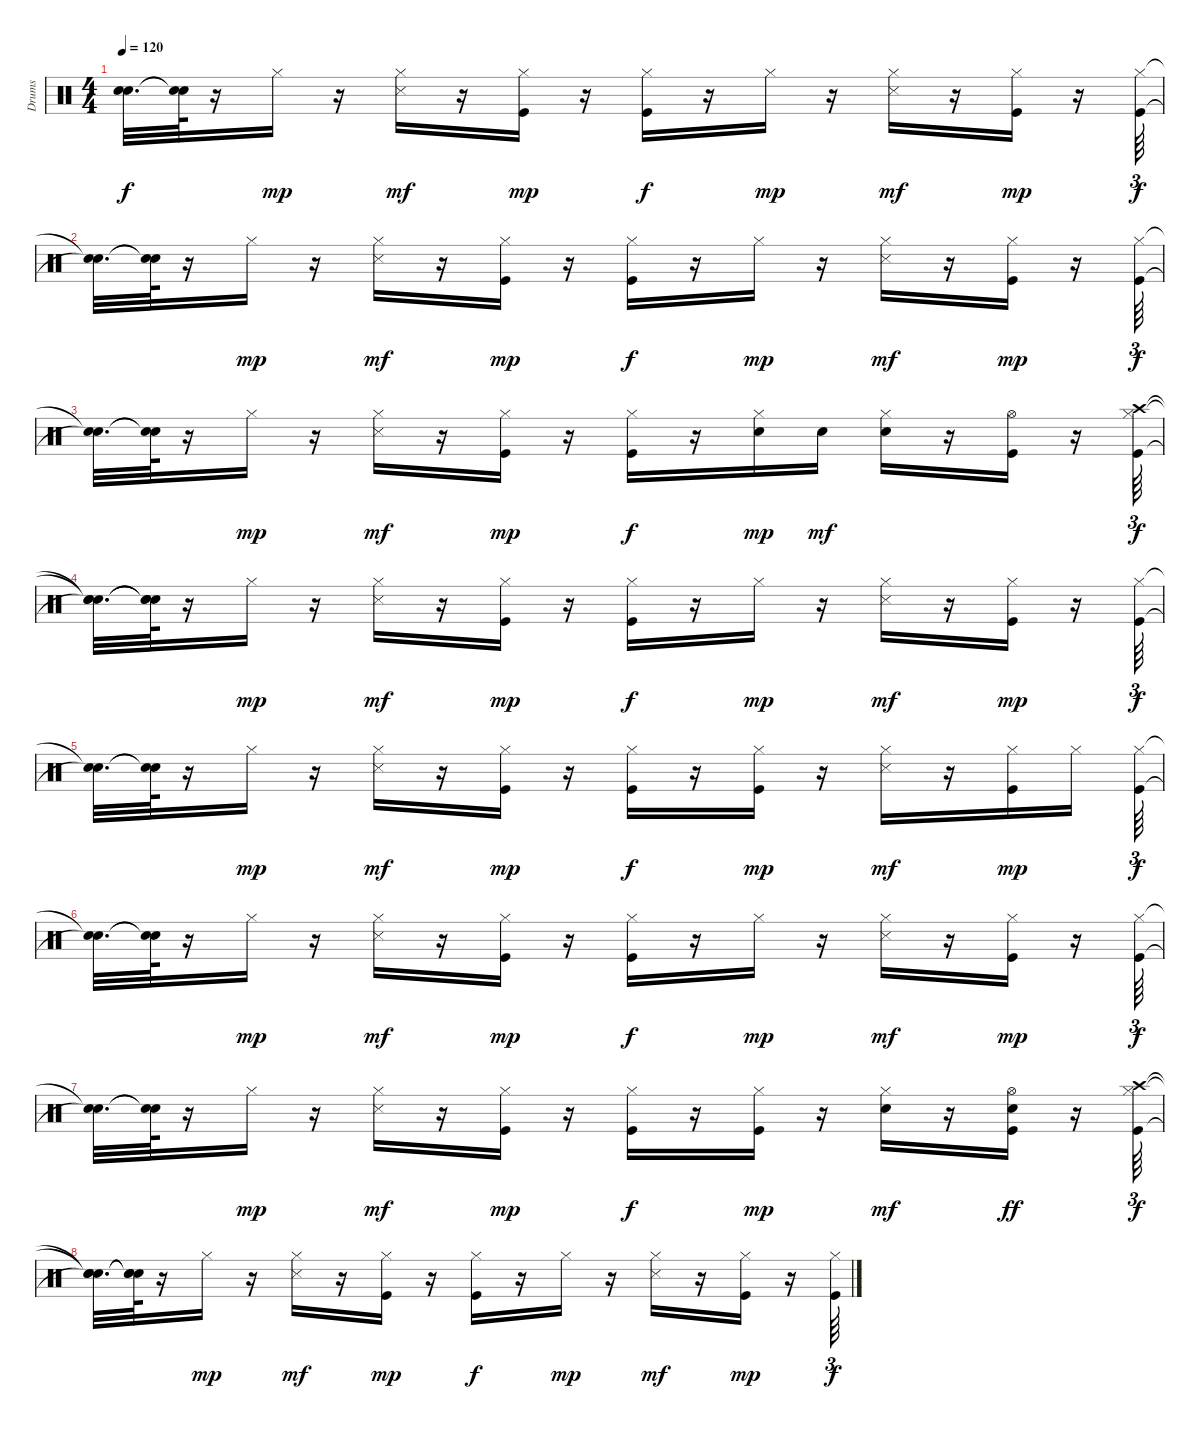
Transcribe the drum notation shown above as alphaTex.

\track ("Drums" "Drums") {instrument percussion}
\staff {score}
\articulation defaults
\ts (4 4)
\tempo 120
\clef neutral
\ks c
("Snare (hit)"{t} "Snare (hit)"{t}).32{d dy f} ("Snare (hit)"{t} "Snare (hit)"{t}).64 r.16 "Hi-Hat (closed)".16{dy mp} r.16 ("Hi-Hat (closed)" "Snare (side stick) 3").16{dy mf} r.16 ("Kick (hit)" "Hi-Hat (closed)").16{dy mp} r.16 ("Kick (hit)" "Hi-Hat (closed)").16{dy f} r.16 "Hi-Hat (closed)".16{dy mp} r.16 ("Hi-Hat (closed)" "Snare (side stick) 3").16{dy mf} r.16 ("Kick (hit)" "Hi-Hat (closed)").16{dy mp} r.16 ("Kick (hit)" "Hi-Hat (closed)").64{tu (3 2) dy f} |
("Snare (hit)"{t} "Snare (hit)"{t}).32{d} ("Snare (hit)"{t} "Snare (hit)"{t}).64 r.16 "Hi-Hat (closed)".16{dy mp} r.16 ("Hi-Hat (closed)" "Snare (side stick) 3").16{dy mf} r.16 ("Kick (hit)" "Hi-Hat (closed)").16{dy mp} r.16 ("Kick (hit)" "Hi-Hat (closed)").16{dy f} r.16 "Hi-Hat (closed)".16{dy mp} r.16 ("Hi-Hat (closed)" "Snare (side stick) 3").16{dy mf} r.16 ("Kick (hit)" "Hi-Hat (closed)").16{dy mp} r.16 ("Kick (hit)" "Hi-Hat (closed)").64{tu (3 2) dy f} |
("Snare (hit)"{t} "Snare (hit)"{t}).32{d} ("Snare (hit)"{t} "Snare (hit)"{t}).64 r.16 "Hi-Hat (closed)".16{dy mp} r.16 ("Hi-Hat (closed)" "Snare (side stick) 3").16{dy mf} r.16 ("Kick (hit)" "Hi-Hat (closed)").16{dy mp} r.16 ("Kick (hit)" "Hi-Hat (closed)").16{dy f} r.16 ("Snare (hit) 2" "Hi-Hat (closed)").16{dy mp} "Snare (hit) 2".16{dy mf} ("Snare (hit) 2" "Hi-Hat (closed)").16 r.16 ("Kick (hit)" "Hi-Hat (open)").16 r.16 ("Kick (hit)" "Hi-Hat (closed)" "Crash high (hit)").64{tu (3 2) dy f} |
("Snare (hit)"{t} "Snare (hit)"{t} "Snare (hit)"{t}).32{d} ("Snare (hit)"{t} "Snare (hit)"{t} "Snare (hit)"{t}).64 r.16 "Hi-Hat (closed)".16{dy mp} r.16 ("Hi-Hat (closed)" "Snare (side stick) 3").16{dy mf} r.16 ("Kick (hit)" "Hi-Hat (closed)").16{dy mp} r.16 ("Kick (hit)" "Hi-Hat (closed)").16{dy f} r.16 "Hi-Hat (closed)".16{dy mp} r.16 ("Hi-Hat (closed)" "Snare (side stick) 3").16{dy mf} r.16 ("Kick (hit)" "Hi-Hat (closed)").16{dy mp} r.16 ("Kick (hit)" "Hi-Hat (closed)").64{tu (3 2) dy f} |
("Snare (hit)"{t} "Snare (hit)"{t}).32{d} ("Snare (hit)"{t} "Snare (hit)"{t}).64 r.16 "Hi-Hat (closed)".16{dy mp} r.16 ("Hi-Hat (closed)" "Snare (side stick) 3").16{dy mf} r.16 ("Kick (hit)" "Hi-Hat (closed)").16{dy mp} r.16 ("Kick (hit)" "Hi-Hat (closed)").16{dy f} r.16 ("Kick (hit)" "Hi-Hat (closed)").16{dy mp} r.16 ("Hi-Hat (closed)" "Snare (side stick) 3").16{dy mf} r.16 ("Kick (hit)" "Hi-Hat (closed)").16{dy mp} "Hi-Hat (closed)".16 ("Kick (hit)" "Hi-Hat (closed)").64{tu (3 2) dy f} |
("Snare (hit)"{t} "Snare (hit)"{t}).32{d} ("Snare (hit)"{t} "Snare (hit)"{t}).64 r.16 "Hi-Hat (closed)".16{dy mp} r.16 ("Hi-Hat (closed)" "Snare (side stick) 3").16{dy mf} r.16 ("Kick (hit)" "Hi-Hat (closed)").16{dy mp} r.16 ("Kick (hit)" "Hi-Hat (closed)").16{dy f} r.16 "Hi-Hat (closed)".16{dy mp} r.16 ("Hi-Hat (closed)" "Snare (side stick) 3").16{dy mf} r.16 ("Kick (hit)" "Hi-Hat (closed)").16{dy mp} r.16 ("Kick (hit)" "Hi-Hat (closed)").64{tu (3 2) dy f} |
("Snare (hit)"{t} "Snare (hit)"{t}).32{d} ("Snare (hit)"{t} "Snare (hit)"{t}).64 r.16 "Hi-Hat (closed)".16{dy mp} r.16 ("Hi-Hat (closed)" "Snare (side stick) 3").16{dy mf} r.16 ("Kick (hit)" "Hi-Hat (closed)").16{dy mp} r.16 ("Kick (hit)" "Hi-Hat (closed)").16{dy f} r.16 ("Kick (hit)" "Hi-Hat (closed)").16{dy mp} r.16 ("Snare (hit) 2" "Hi-Hat (closed)").16{dy mf} r.16 ("Kick (hit)" "Snare (hit) 2" "Hi-Hat (open)").16{dy ff} r.16 ("Kick (hit)" "Hi-Hat (closed)" "Crash high (hit)").64{tu (3 2) dy f} |
("Snare (hit)"{t} "Snare (hit)"{t} "Snare (hit)"{t}).32{d} ("Snare (hit)"{t} "Snare (hit)"{t} "Snare (hit)"{t}).64 r.16 "Hi-Hat (closed)".16{dy mp} r.16 ("Hi-Hat (closed)" "Snare (side stick) 3").16{dy mf} r.16 ("Kick (hit)" "Hi-Hat (closed)").16{dy mp} r.16 ("Kick (hit)" "Hi-Hat (closed)").16{dy f} r.16 "Hi-Hat (closed)".16{dy mp} r.16 ("Hi-Hat (closed)" "Snare (side stick) 3").16{dy mf} r.16 ("Kick (hit)" "Hi-Hat (closed)").16{dy mp} r.16 ("Kick (hit)" "Hi-Hat (closed)").64{tu (3 2) dy f}
